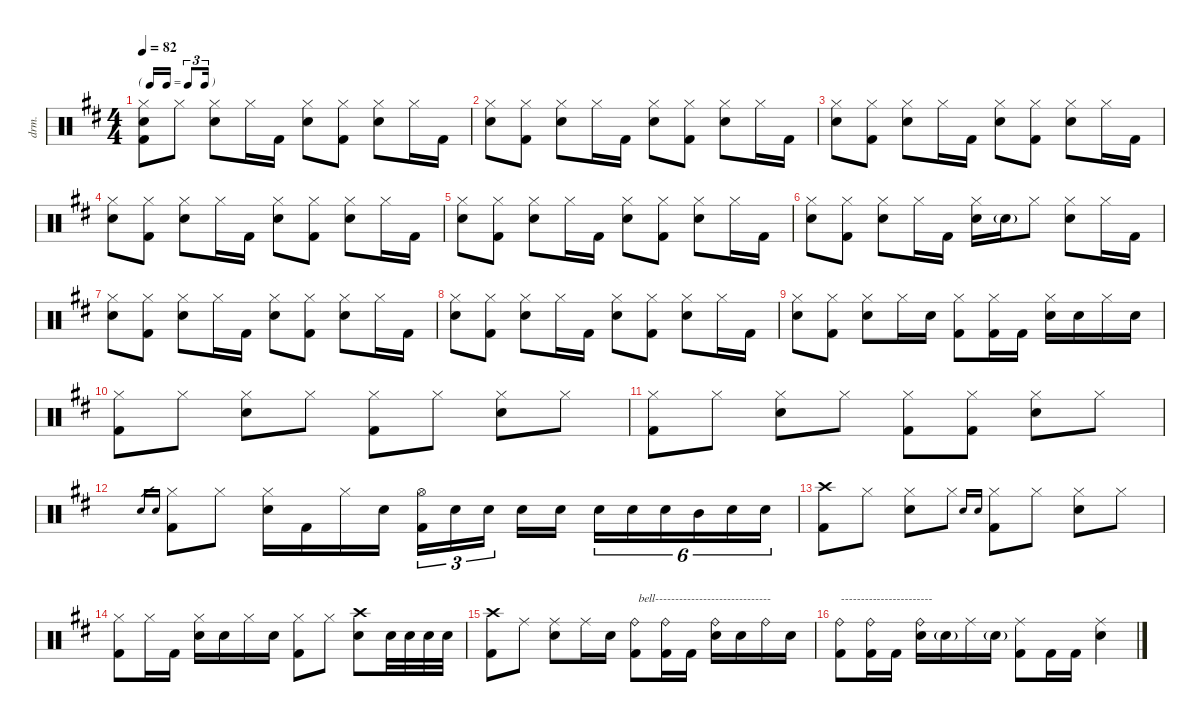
\defaultSystemsLayout 4
\hideDynamics
\bracketExtendMode nobrackets
\otherSystemsTrackNameOrientation horizontal
\track ("Buddy" "drm.") {instrument percussion}
\staff {score}
\articulation defaults
\ts (4 4)
\tf triplet16th
\tempo 82
\clef neutral
\ks d
("Hi-Hat (closed)"{acc forcenatural} "Snare (hit) 2"{acc forcenatural} "Kick (hit) 2"{acc forcenatural}).8{dy mf beam Down} "Hi-Hat (closed)"{acc forcenatural}.8{beam Down} ("Hi-Hat (closed)"{acc forcenatural} "Snare (hit) 2"{acc forcenatural}).8{beam Down} "Hi-Hat (closed)"{acc forcenatural}.16{beam Down} "Kick (hit) 2"{acc forcenatural}.16{beam Down} ("Hi-Hat (closed)"{acc forcenatural} "Snare (hit) 2"{acc forcenatural}).8{beam Down} ("Hi-Hat (closed)"{acc forcenatural} "Kick (hit) 2"{acc forcenatural}).8{beam Down} ("Hi-Hat (closed)"{acc forcenatural} "Snare (hit) 2"{acc forcenatural}).8{beam Down} "Hi-Hat (closed)"{acc forcenatural}.16{beam Down} "Kick (hit) 2"{acc forcenatural}.16{beam Down} |
("Hi-Hat (closed)"{acc forcenatural} "Snare (hit) 2"{acc forcenatural}).8{beam Down} ("Hi-Hat (closed)"{acc forcenatural} "Kick (hit) 2"{acc forcenatural}).8{beam Down} ("Hi-Hat (closed)"{acc forcenatural} "Snare (hit) 2"{acc forcenatural}).8{beam Down} "Hi-Hat (closed)"{acc forcenatural}.16{beam Down} "Kick (hit) 2"{acc forcenatural}.16{beam Down} ("Hi-Hat (closed)"{acc forcenatural} "Snare (hit) 2"{acc forcenatural}).8{beam Down} ("Hi-Hat (closed)"{acc forcenatural} "Kick (hit) 2"{acc forcenatural}).8{beam Down} ("Hi-Hat (closed)"{acc forcenatural} "Snare (hit) 2"{acc forcenatural}).8{beam Down} "Hi-Hat (closed)"{acc forcenatural}.16{beam Down} "Kick (hit) 2"{acc forcenatural}.16{beam Down} |
("Hi-Hat (closed)"{acc forcenatural} "Snare (hit) 2"{acc forcenatural}).8{beam Down} ("Hi-Hat (closed)"{acc forcenatural} "Kick (hit) 2"{acc forcenatural}).8{beam Down} ("Hi-Hat (closed)"{acc forcenatural} "Snare (hit) 2"{acc forcenatural}).8{beam Down} "Hi-Hat (closed)"{acc forcenatural}.16{beam Down} "Kick (hit) 2"{acc forcenatural}.16{beam Down} ("Hi-Hat (closed)"{acc forcenatural} "Snare (hit) 2"{acc forcenatural}).8{beam Down} ("Hi-Hat (closed)"{acc forcenatural} "Kick (hit) 2"{acc forcenatural}).8{beam Down} ("Hi-Hat (closed)"{acc forcenatural} "Snare (hit) 2"{acc forcenatural}).8{beam Down} "Hi-Hat (closed)"{acc forcenatural}.16{beam Down} "Kick (hit) 2"{acc forcenatural}.16{beam Down} |
("Hi-Hat (closed)"{acc forcenatural} "Snare (hit) 2"{acc forcenatural}).8{dy f beam Down} ("Hi-Hat (closed)"{acc forcenatural} "Kick (hit) 2"{acc forcenatural}).8{beam Down} ("Hi-Hat (closed)"{acc forcenatural} "Snare (hit) 2"{acc forcenatural}).8{beam Down} "Hi-Hat (closed)"{acc forcenatural}.16{beam Down} "Kick (hit) 2"{acc forcenatural}.16{beam Down} ("Hi-Hat (closed)"{acc forcenatural} "Snare (hit) 2"{acc forcenatural}).8{beam Down} ("Hi-Hat (closed)"{acc forcenatural} "Kick (hit) 2"{acc forcenatural}).8{beam Down} ("Hi-Hat (closed)"{acc forcenatural} "Snare (hit) 2"{acc forcenatural}).8{beam Down} "Hi-Hat (closed)"{acc forcenatural}.16{beam Down} "Kick (hit) 2"{acc forcenatural}.16{beam Down} |
("Hi-Hat (closed)"{acc forcenatural} "Snare (hit) 2"{acc forcenatural}).8{dy mf beam Down} ("Hi-Hat (closed)"{acc forcenatural} "Kick (hit) 2"{acc forcenatural}).8{beam Down} ("Hi-Hat (closed)"{acc forcenatural} "Snare (hit) 2"{acc forcenatural}).8{beam Down} "Hi-Hat (closed)"{acc forcenatural}.16{beam Down} "Kick (hit) 2"{acc forcenatural}.16{beam Down} ("Hi-Hat (closed)"{acc forcenatural} "Snare (hit) 2"{acc forcenatural}).8{beam Down} ("Hi-Hat (closed)"{acc forcenatural} "Kick (hit) 2"{acc forcenatural}).8{beam Down} ("Hi-Hat (closed)"{acc forcenatural} "Snare (hit) 2"{acc forcenatural}).8{beam Down} "Hi-Hat (closed)"{acc forcenatural}.16{beam Down} "Kick (hit) 2"{acc forcenatural}.16{beam Down} |
("Hi-Hat (closed)"{acc forcenatural} "Snare (hit) 2"{acc forcenatural}).8{dy f beam Down} ("Hi-Hat (closed)"{acc forcenatural} "Kick (hit) 2"{acc forcenatural}).8{beam Down} ("Hi-Hat (closed)"{acc forcenatural} "Snare (hit) 2"{acc forcenatural}).8{beam Down} "Hi-Hat (closed)"{acc forcenatural}.16{beam Down} "Kick (hit) 2"{acc forcenatural}.16{beam Down} ("Hi-Hat (closed)"{acc forcenatural} "Snare (hit) 2"{acc forcenatural}).16{beam Down} "Snare (hit) 2"{g acc forcenatural}.16{dy mf beam Down} "Hi-Hat (closed)"{acc forcenatural}.8{dy f beam Down} ("Hi-Hat (closed)"{acc forcenatural} "Snare (hit) 2"{acc forcenatural}).8{beam Down} "Hi-Hat (closed)"{acc forcenatural}.16{beam Down} "Kick (hit) 2"{acc forcenatural}.16{beam Down} |
("Hi-Hat (closed)"{acc forcenatural} "Snare (hit) 2"{acc forcenatural}).8{dy mf beam Down} ("Hi-Hat (closed)"{acc forcenatural} "Kick (hit) 2"{acc forcenatural}).8{beam Down} ("Hi-Hat (closed)"{acc forcenatural} "Snare (hit) 2"{acc forcenatural}).8{beam Down} "Hi-Hat (closed)"{acc forcenatural}.16{beam Down} "Kick (hit) 2"{acc forcenatural}.16{beam Down} ("Hi-Hat (closed)"{acc forcenatural} "Snare (hit) 2"{acc forcenatural}).8{beam Down} ("Hi-Hat (closed)"{acc forcenatural} "Kick (hit) 2"{acc forcenatural}).8{beam Down} ("Hi-Hat (closed)"{acc forcenatural} "Snare (hit) 2"{acc forcenatural}).8{beam Down} "Hi-Hat (closed)"{acc forcenatural}.16{beam Down} "Kick (hit) 2"{acc forcenatural}.16{beam Down} |
("Hi-Hat (closed)"{acc forcenatural} "Snare (hit) 2"{acc forcenatural}).8{beam Down} ("Hi-Hat (closed)"{acc forcenatural} "Kick (hit) 2"{acc forcenatural}).8{beam Down} ("Hi-Hat (closed)"{acc forcenatural} "Snare (hit) 2"{acc forcenatural}).8{beam Down} "Hi-Hat (closed)"{acc forcenatural}.16{beam Down} "Kick (hit) 2"{acc forcenatural}.16{beam Down} ("Hi-Hat (closed)"{acc forcenatural} "Snare (hit) 2"{acc forcenatural}).8{beam Down} ("Hi-Hat (closed)"{acc forcenatural} "Kick (hit) 2"{acc forcenatural}).8{beam Down} ("Hi-Hat (closed)"{acc forcenatural} "Snare (hit) 2"{acc forcenatural}).8{beam Down} "Hi-Hat (closed)"{acc forcenatural}.16{beam Down} "Kick (hit) 2"{acc forcenatural}.16{beam Down} |
("Hi-Hat (closed)"{acc forcenatural} "Snare (hit) 2"{acc forcenatural}).8{dy f beam Down} ("Hi-Hat (closed)"{acc forcenatural} "Kick (hit) 2"{acc forcenatural}).8{beam Down} ("Hi-Hat (closed)"{acc forcenatural} "Snare (hit) 2"{acc forcenatural}).8{beam Down} "Hi-Hat (closed)"{acc forcenatural}.16{beam Down} "Snare (hit) 2"{acc forcenatural}.16{beam Down} ("Hi-Hat (closed)"{acc forcenatural} "Kick (hit) 2"{acc forcenatural}).8{beam Down} ("Hi-Hat (closed)"{acc forcenatural} "Kick (hit) 2"{acc forcenatural}).16{beam Down} "Kick (hit) 2"{acc forcenatural}.16{beam Down} ("Hi-Hat (closed)"{acc forcenatural} "Snare (hit) 2"{acc forcenatural}).16{beam Down} "Snare (hit) 2"{acc forcenatural}.16{beam Down} "Hi-Hat (closed)"{acc forcenatural}.16{beam Down} "Snare (hit) 2"{acc forcenatural}.16{beam Down} |
("Hi-Hat (closed)"{acc forcenatural} "Kick (hit) 2"{acc forcenatural}).8{beam Down} "Hi-Hat (closed)"{acc forcenatural}.8{beam Down} ("Hi-Hat (closed)"{acc forcenatural} "Snare (hit) 2"{acc forcenatural}).8{beam Down} "Hi-Hat (closed)"{acc forcenatural}.8{beam Down} ("Hi-Hat (closed)"{acc forcenatural} "Kick (hit) 2"{acc forcenatural}).8{beam Down} "Hi-Hat (closed)"{acc forcenatural}.8{beam Down} ("Hi-Hat (closed)"{acc forcenatural} "Snare (hit) 2"{acc forcenatural}).8{beam Down} "Hi-Hat (closed)"{acc forcenatural}.8{beam Down} |
("Hi-Hat (closed)"{acc forcenatural} "Kick (hit) 2"{acc forcenatural}).8{beam Down} "Hi-Hat (closed)"{acc forcenatural}.8{beam Down} ("Hi-Hat (closed)"{acc forcenatural} "Snare (hit) 2"{acc forcenatural}).8{beam Down} "Hi-Hat (closed)"{acc forcenatural}.8{beam Down} ("Hi-Hat (closed)"{acc forcenatural} "Kick (hit) 2"{acc forcenatural}).8{beam Down} ("Hi-Hat (closed)"{acc forcenatural} "Kick (hit) 2"{acc forcenatural}).8{beam Down} ("Hi-Hat (closed)"{acc forcenatural} "Snare (hit) 2"{acc forcenatural}).8{beam Down} "Hi-Hat (closed)"{acc forcenatural}.8{beam Down} |
"Metronome (bell)"{acc forcenatural}.16{gr dy pp beam Up} "Snare (hit) 2"{acc forcenatural}.16{gr beam Up} ("Hi-Hat (closed)"{acc forcenatural} "Kick (hit) 2"{acc forcenatural}).8{dy f beam Down} "Hi-Hat (closed)"{acc forcenatural}.8{beam Down} ("Hi-Hat (closed)"{acc forcenatural} "Snare (hit) 2"{acc forcenatural}).16{beam Down} "Kick (hit) 2"{acc forcenatural}.16{beam Down} "Hi-Hat (closed)"{acc forcenatural}.16{beam Down} "Snare (hit) 2"{acc forcenatural}.16{beam Down} ("Hi-Hat (open)"{acc forcenatural} "Kick (hit) 2"{acc forcenatural}).16{tu (3 2) beam Down} "Snare (hit) 2"{acc forcenatural}.16{tu (3 2) beam Down} "Snare (hit) 2"{acc forcenatural}.16{tu (3 2) beam Down} "Snare (hit) 2"{acc forcenatural}.16{beam Down} "Snare (hit) 2"{acc forcenatural}.16{beam Down} "Snare (hit) 2"{acc forcenatural}.16{tu (6 4) beam Down} "Snare (hit) 2"{acc forcenatural}.16{tu (6 4) beam Down} "Snare (hit) 2"{acc forcenatural}.16{tu (6 4) beam Down} "Mid Tom (hit)"{acc forcenatural}.16{tu (6 4) beam Down} "Snare (hit) 2"{acc forcenatural}.16{tu (6 4) beam Down} "Snare (hit) 2"{acc forcenatural}.16{tu (6 4) beam Down} |
("Crash high (hit)"{acc forcenatural} "Kick (hit) 2"{acc forcenatural}).8{beam Down} "Hi-Hat (closed)"{acc forcenatural}.8{beam Down} ("Hi-Hat (closed)"{acc forcenatural} "Snare (hit) 2"{acc forcenatural}).8{beam Down} "Hi-Hat (closed)"{acc forcenatural}.8{beam Down} "Snare (hit) 2"{acc forcenatural}.16{gr onbeat dy pp beam Up} "Snare (hit) 2"{acc forcenatural}.16{gr onbeat beam Up} ("Hi-Hat (closed)"{acc forcenatural} "Kick (hit) 2"{acc forcenatural}).8{dy f beam Down} "Hi-Hat (closed)"{acc forcenatural}.8{beam Down} ("Hi-Hat (closed)"{acc forcenatural} "Snare (hit) 2"{acc forcenatural}).8{beam Down} "Hi-Hat (closed)"{acc forcenatural}.8{beam Down} |
("Hi-Hat (closed)"{acc forcenatural} "Kick (hit) 2"{acc forcenatural}).8{beam Down} "Hi-Hat (closed)"{acc forcenatural}.16{beam Down} "Kick (hit) 2"{acc forcenatural}.16{beam Down} ("Hi-Hat (closed)"{acc forcenatural} "Snare (hit) 2"{acc forcenatural}).16{beam Down} "Snare (hit) 2"{acc forcenatural}.16{beam Down} "Hi-Hat (closed)"{acc forcenatural}.16{beam Down} "Snare (hit) 2"{acc forcenatural}.16{beam Down} ("Hi-Hat (closed)"{acc forcenatural} "Kick (hit) 2"{acc forcenatural}).8{beam Down} "Hi-Hat (closed)"{acc forcenatural}.8{beam Down} ("Crash high (hit)"{acc forcenatural} "Snare (hit) 2"{acc forcenatural}).8{beam Down} "Snare (hit) 2"{acc forcenatural}.32{beam Down} "Snare (hit) 2"{acc forcenatural}.32{dy mf beam Down} "Snare (hit) 2"{acc forcenatural}.32{beam Down} "Snare (hit) 2"{acc forcenatural}.32{beam Down} |
("Crash high (hit)"{acc forcenatural} "Kick (hit) 2"{acc forcenatural}).8{dy f beam Down} "Ride (middle)"{acc forcenatural}.8{beam Down} ("Ride (middle)"{acc forcenatural} "Snare (hit) 2"{acc forcenatural}).8{beam Down} "Ride (middle)"{acc forcenatural}.16{beam Down} "Snare (hit) 2"{acc forcenatural}.16{beam Down} ("Ride (bell)"{acc forcenatural} "Kick (hit) 2"{acc forcenatural}).8{txt " bell-----------------------------" dy mf beam Down} ("Ride (bell)"{acc forcenatural} "Kick (hit) 2"{acc forcenatural}).16{beam Down} "Kick (hit) 2"{acc forcenatural}.16{dy f beam Down} ("Ride (bell)"{acc forcenatural} "Snare (hit) 2"{acc forcenatural}).16{dy mf beam Down} "Snare (hit) 2"{acc forcenatural}.16{dy f beam Down} "Ride (bell)"{acc forcenatural}.16{dy mf beam Down} "Snare (hit) 2"{acc forcenatural}.16{dy f beam Down} |
("Ride (bell)"{acc forcenatural} "Kick (hit) 2"{acc forcenatural}).8{txt "-----------------------" dy mf beam Down} ("Ride (bell)"{acc forcenatural} "Kick (hit) 2"{acc forcenatural}).16{beam Down} "Kick (hit) 2"{acc forcenatural}.16{dy f beam Down} ("Ride (bell)"{acc forcenatural} "Snare (hit) 2"{acc forcenatural}).16{dy mf beam Down} "Snare (hit) 2"{g acc forcenatural}.16{beam Down} "Ride (middle)"{acc forcenatural}.16{dy f beam Down} "Snare (hit) 2"{g acc forcenatural}.16{dy mf beam Down} ("Ride (middle)"{acc forcenatural} "Kick (hit) 2"{acc forcenatural}).8{dy f beam Down} "Kick (hit) 2"{acc forcenatural}.16{beam Down} "Kick (hit) 2"{acc forcenatural}.16{beam Down} ("Ride (middle)"{acc forcenatural} "Snare (hit) 2"{acc forcenatural}).4{beam Down}
